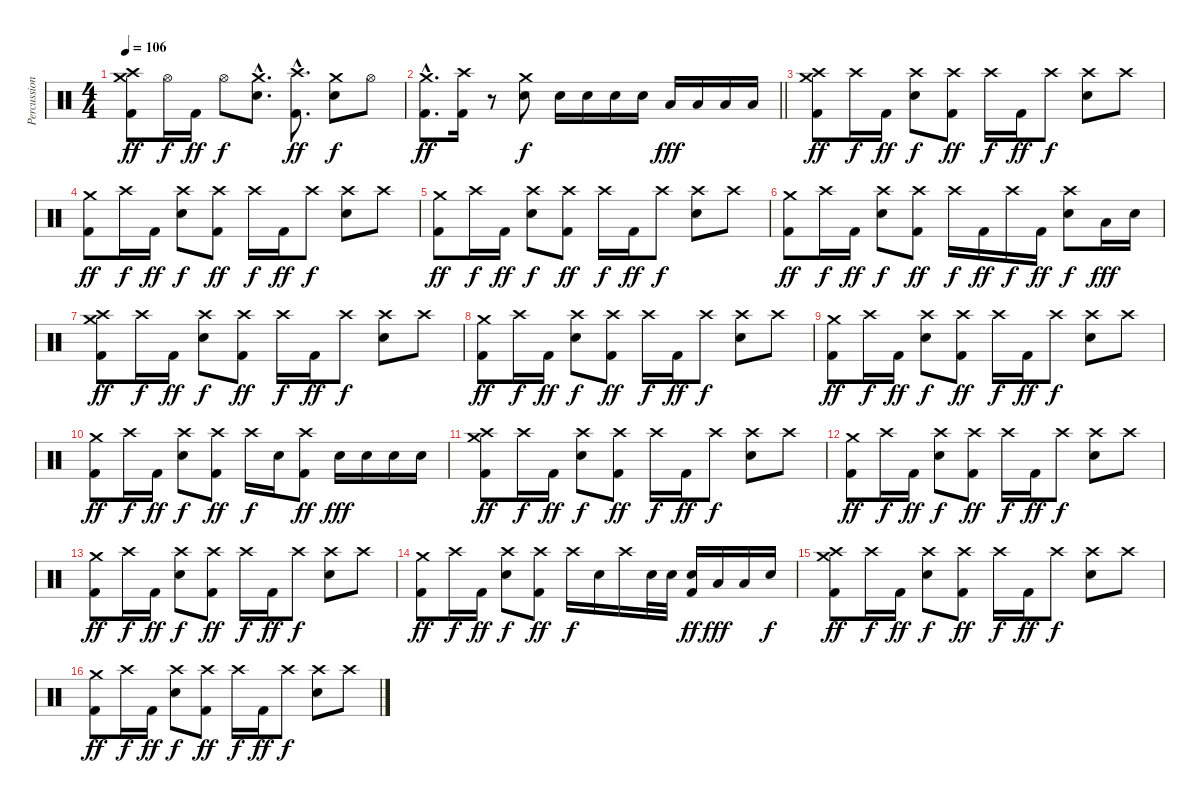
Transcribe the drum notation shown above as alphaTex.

\track ("Percussion" "Percussion") {instrument percussion}
\staff {score}
\articulation defaults
\ts (4 4)
\tempo 106
\clef neutral
\ks c
("Crash medium (hit)" "Crash high (hit)" "Kick (hit) 2").8{dy ff} "Hi-Hat (open)".16{dy f} "Kick (hit) 2".16{dy ff} "Hi-Hat (open)".8{dy f} ("Crash medium (hit)"{hac} "Electric Snare (hit)"{hac}).8{d} ("Crash high (hit)"{hac} "Kick (hit) 2"{hac}).8{d dy ff} ("Crash medium (hit)" "Electric Snare (hit)").8{dy f} "Hi-Hat (open)".8 |
\barLineRight lightlight
("Crash medium (hit)"{hac} "Kick (hit) 2"{hac}).8{d dy ff} ("Crash high (hit)" "Kick (hit) 2").16 r.8 ("Crash medium (hit)" "Electric Snare (hit)").8{dy f} "Electric Snare (hit)".16 "Electric Snare (hit)".16 "Electric Snare (hit)".16 "Electric Snare (hit)".16 "Low Tom (hit)".16{dy fff} "Low Tom (hit)".16 "Low Floor Tom (hit)".16 "Low Floor Tom (hit)".16 |
("Crash medium (hit)" "Crash high (hit)" "Kick (hit) 2").8{dy ff} "Crash high (hit)".16{dy f} "Kick (hit) 2".16{dy ff} ("Crash high (hit)" "Electric Snare (hit)").8{dy f} ("Crash high (hit)" "Kick (hit) 2").8{dy ff} "Crash high (hit)".16{dy f} "Kick (hit) 2".16{dy ff} "Crash high (hit)".8{dy f} ("Crash high (hit)" "Electric Snare (hit)").8 "Crash high (hit)".8 |
("Crash medium (hit)" "Kick (hit) 2").8{dy ff} "Crash high (hit)".16{dy f} "Kick (hit) 2".16{dy ff} ("Crash high (hit)" "Electric Snare (hit)").8{dy f} ("Crash high (hit)" "Kick (hit) 2").8{dy ff} "Crash high (hit)".16{dy f} "Kick (hit) 2".16{dy ff} "Crash high (hit)".8{dy f} ("Crash high (hit)" "Electric Snare (hit)").8 "Crash high (hit)".8 |
("Crash medium (hit)" "Kick (hit) 2").8{dy ff} "Crash high (hit)".16{dy f} "Kick (hit) 2".16{dy ff} ("Crash high (hit)" "Electric Snare (hit)").8{dy f} ("Crash high (hit)" "Kick (hit) 2").8{dy ff} "Crash high (hit)".16{dy f} "Kick (hit) 2".16{dy ff} "Crash high (hit)".8{dy f} ("Crash high (hit)" "Electric Snare (hit)").8 "Crash high (hit)".8 |
("Crash medium (hit)" "Kick (hit) 2").8{dy ff} "Crash high (hit)".16{dy f} "Kick (hit) 2".16{dy ff} ("Crash high (hit)" "Electric Snare (hit)").8{dy f} ("Crash high (hit)" "Kick (hit) 2").8{dy ff} "Crash high (hit)".16{dy f} "Kick (hit) 2".16{dy ff} "Crash high (hit)".16{dy f} "Kick (hit) 2".16{dy ff} ("Crash high (hit)" "Electric Snare (hit)").8{dy f} "Low Floor Tom (hit)".16{dy fff} "Electric Snare (hit)".16 |
("Crash medium (hit)" "Crash high (hit)" "Kick (hit) 2").8{dy ff} "Crash high (hit)".16{dy f} "Kick (hit) 2".16{dy ff} ("Crash high (hit)" "Electric Snare (hit)").8{dy f} ("Crash high (hit)" "Kick (hit) 2").8{dy ff} "Crash high (hit)".16{dy f} "Kick (hit) 2".16{dy ff} "Crash high (hit)".8{dy f} ("Crash high (hit)" "Electric Snare (hit)").8 "Crash high (hit)".8 |
("Crash medium (hit)" "Kick (hit) 2").8{dy ff} "Crash high (hit)".16{dy f} "Kick (hit) 2".16{dy ff} ("Crash high (hit)" "Electric Snare (hit)").8{dy f} ("Crash high (hit)" "Kick (hit) 2").8{dy ff} "Crash high (hit)".16{dy f} "Kick (hit) 2".16{dy ff} "Crash high (hit)".8{dy f} ("Crash high (hit)" "Electric Snare (hit)").8 "Crash high (hit)".8 |
("Crash medium (hit)" "Kick (hit) 2").8{dy ff} "Crash high (hit)".16{dy f} "Kick (hit) 2".16{dy ff} ("Crash high (hit)" "Electric Snare (hit)").8{dy f} ("Crash high (hit)" "Kick (hit) 2").8{dy ff} "Crash high (hit)".16{dy f} "Kick (hit) 2".16{dy ff} "Crash high (hit)".8{dy f} ("Crash high (hit)" "Electric Snare (hit)").8 "Crash high (hit)".8 |
("Crash medium (hit)" "Kick (hit) 2").8{dy ff} "Crash high (hit)".16{dy f} "Kick (hit) 2".16{dy ff} ("Crash high (hit)" "Electric Snare (hit)").8{dy f} ("Crash high (hit)" "Kick (hit) 2").8{dy ff} "Crash high (hit)".16{dy f} "Electric Snare (hit)".16 ("Crash high (hit)" "Kick (hit) 2").8{dy ff} "Electric Snare (hit)".16{dy fff} "Electric Snare (hit)".16 "Electric Snare (hit)".16 "Electric Snare (hit)".16 |
("Crash medium (hit)" "Crash high (hit)" "Kick (hit) 2").8{dy ff} "Crash high (hit)".16{dy f} "Kick (hit) 2".16{dy ff} ("Crash high (hit)" "Electric Snare (hit)").8{dy f} ("Crash high (hit)" "Kick (hit) 2").8{dy ff} "Crash high (hit)".16{dy f} "Kick (hit) 2".16{dy ff} "Crash high (hit)".8{dy f} ("Crash high (hit)" "Electric Snare (hit)").8 "Crash high (hit)".8 |
("Crash medium (hit)" "Kick (hit) 2").8{dy ff} "Crash high (hit)".16{dy f} "Kick (hit) 2".16{dy ff} ("Crash high (hit)" "Electric Snare (hit)").8{dy f} ("Crash high (hit)" "Kick (hit) 2").8{dy ff} "Crash high (hit)".16{dy f} "Kick (hit) 2".16{dy ff} "Crash high (hit)".8{dy f} ("Crash high (hit)" "Electric Snare (hit)").8 "Crash high (hit)".8 |
("Crash medium (hit)" "Kick (hit) 2").8{dy ff} "Crash high (hit)".16{dy f} "Kick (hit) 2".16{dy ff} ("Crash high (hit)" "Electric Snare (hit)").8{dy f} ("Crash high (hit)" "Kick (hit) 2").8{dy ff} "Crash high (hit)".16{dy f} "Kick (hit) 2".16{dy ff} "Crash high (hit)".8{dy f} ("Crash high (hit)" "Electric Snare (hit)").8 "Crash high (hit)".8 |
("Crash medium (hit)" "Kick (hit) 2").8{dy ff} "Crash high (hit)".16{dy f} "Kick (hit) 2".16{dy ff} ("Crash high (hit)" "Electric Snare (hit)").8{dy f} ("Crash high (hit)" "Kick (hit) 2").8{dy ff} "Crash high (hit)".16{dy f} "Electric Snare (hit)".16 "Crash high (hit)".16 "Electric Snare (hit)".32 "Electric Snare (hit)".32 ("Electric Snare (hit)" "Kick (hit) 2").16{dy ff} "Low Tom (hit)".16{dy fff} "Low Floor Tom (hit)".16 "Electric Snare (hit)".16{dy f} |
("Crash medium (hit)" "Crash high (hit)" "Kick (hit) 2").8{dy ff} "Crash high (hit)".16{dy f} "Kick (hit) 2".16{dy ff} ("Crash high (hit)" "Electric Snare (hit)").8{dy f} ("Crash high (hit)" "Kick (hit) 2").8{dy ff} "Crash high (hit)".16{dy f} "Kick (hit) 2".16{dy ff} "Crash high (hit)".8{dy f} ("Crash high (hit)" "Electric Snare (hit)").8 "Crash high (hit)".8 |
("Crash medium (hit)" "Kick (hit) 2").8{dy ff} "Crash high (hit)".16{dy f} "Kick (hit) 2".16{dy ff} ("Crash high (hit)" "Electric Snare (hit)").8{dy f} ("Crash high (hit)" "Kick (hit) 2").8{dy ff} "Crash high (hit)".16{dy f} "Kick (hit) 2".16{dy ff} "Crash high (hit)".8{dy f} ("Crash high (hit)" "Electric Snare (hit)").8 "Crash high (hit)".8
